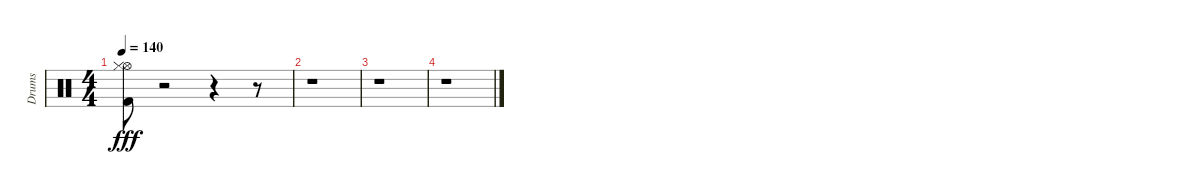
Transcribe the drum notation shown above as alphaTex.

\track ("Drums" "Drums") {instrument percussion}
\staff {score}
\articulation defaults
\ts (4 4)
\tempo 140
\clef neutral
\ks c
("Hi-Hat (open)" "Hi-Hat (closed)" "Kick (hit) 2").8{dy fff} r.2 r.4 r.8 |
r.1 |
r.1 |
r.1
